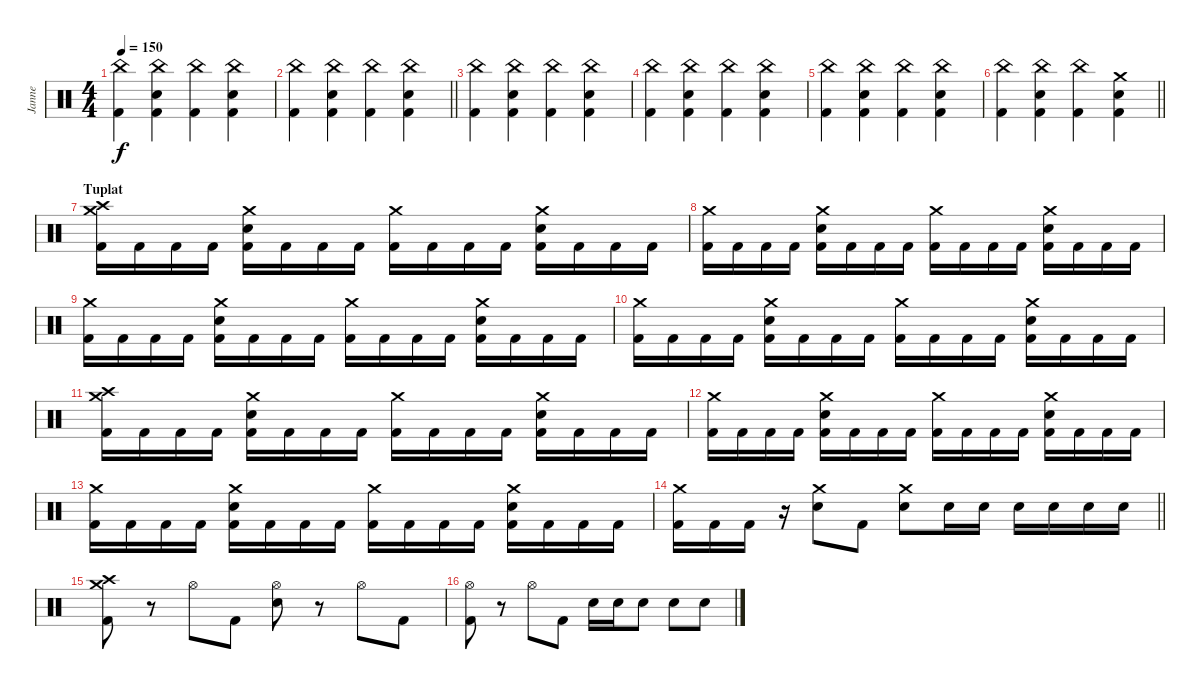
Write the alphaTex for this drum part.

\track ("Janne" "Janne") {instrument percussion}
\staff {score}
\articulation defaults
\ts (4 4)
\tempo 150
\clef neutral
\ks c
("China (hit)" "Kick (hit) 2").4{dy f} ("China (hit)" "Electric Snare (hit)" "Kick (hit) 2").4 ("China (hit)" "Kick (hit) 2").4 ("China (hit)" "Electric Snare (hit)" "Kick (hit) 2").4 |
\barLineRight lightlight
("China (hit)" "Kick (hit) 2").4 ("China (hit)" "Electric Snare (hit)" "Kick (hit) 2").4 ("China (hit)" "Kick (hit) 2").4 ("China (hit)" "Electric Snare (hit)" "Kick (hit) 2").4 |
("China (hit)" "Kick (hit) 2").4 ("China (hit)" "Electric Snare (hit)" "Kick (hit) 2").4 ("China (hit)" "Kick (hit) 2").4 ("China (hit)" "Electric Snare (hit)" "Kick (hit) 2").4 |
("China (hit)" "Kick (hit) 2").4 ("China (hit)" "Electric Snare (hit)" "Kick (hit) 2").4 ("China (hit)" "Kick (hit) 2").4 ("China (hit)" "Electric Snare (hit)" "Kick (hit) 2").4 |
("China (hit)" "Kick (hit) 2").4 ("China (hit)" "Electric Snare (hit)" "Kick (hit) 2").4 ("China (hit)" "Kick (hit) 2").4 ("China (hit)" "Electric Snare (hit)" "Kick (hit) 2").4 |
\barLineRight lightlight
("China (hit)" "Kick (hit) 2").4 ("China (hit)" "Electric Snare (hit)" "Kick (hit) 2").4 ("China (hit)" "Kick (hit) 2").4 ("Crash medium (hit)" "Electric Snare (hit)" "Kick (hit) 2").4 |
\section ("" "Tuplat")
("Crash high (hit)" "Crash medium (hit)" "Kick (hit) 2").16 "Kick (hit) 2".16 "Kick (hit) 2".16 "Kick (hit) 2".16 ("Crash medium (hit)" "Electric Snare (hit)" "Kick (hit) 2").16 "Kick (hit) 2".16 "Kick (hit) 2".16 "Kick (hit) 2".16 ("Crash medium (hit)" "Kick (hit) 2").16 "Kick (hit) 2".16 "Kick (hit) 2".16 "Kick (hit) 2".16 ("Crash medium (hit)" "Electric Snare (hit)" "Kick (hit) 2").16 "Kick (hit) 2".16 "Kick (hit) 2".16 "Kick (hit) 2".16 |
("Crash medium (hit)" "Kick (hit) 2").16 "Kick (hit) 2".16 "Kick (hit) 2".16 "Kick (hit) 2".16 ("Crash medium (hit)" "Electric Snare (hit)" "Kick (hit) 2").16 "Kick (hit) 2".16 "Kick (hit) 2".16 "Kick (hit) 2".16 ("Crash medium (hit)" "Kick (hit) 2").16 "Kick (hit) 2".16 "Kick (hit) 2".16 "Kick (hit) 2".16 ("Crash medium (hit)" "Electric Snare (hit)" "Kick (hit) 2").16 "Kick (hit) 2".16 "Kick (hit) 2".16 "Kick (hit) 2".16 |
("Crash medium (hit)" "Kick (hit) 2").16 "Kick (hit) 2".16 "Kick (hit) 2".16 "Kick (hit) 2".16 ("Crash medium (hit)" "Electric Snare (hit)" "Kick (hit) 2").16 "Kick (hit) 2".16 "Kick (hit) 2".16 "Kick (hit) 2".16 ("Crash medium (hit)" "Kick (hit) 2").16 "Kick (hit) 2".16 "Kick (hit) 2".16 "Kick (hit) 2".16 ("Crash medium (hit)" "Electric Snare (hit)" "Kick (hit) 2").16 "Kick (hit) 2".16 "Kick (hit) 2".16 "Kick (hit) 2".16 |
("Crash medium (hit)" "Kick (hit) 2").16 "Kick (hit) 2".16 "Kick (hit) 2".16 "Kick (hit) 2".16 ("Crash medium (hit)" "Electric Snare (hit)" "Kick (hit) 2").16 "Kick (hit) 2".16 "Kick (hit) 2".16 "Kick (hit) 2".16 ("Crash medium (hit)" "Kick (hit) 2").16 "Kick (hit) 2".16 "Kick (hit) 2".16 "Kick (hit) 2".16 ("Crash medium (hit)" "Electric Snare (hit)" "Kick (hit) 2").16 "Kick (hit) 2".16 "Kick (hit) 2".16 "Kick (hit) 2".16 |
("Crash high (hit)" "Crash medium (hit)" "Kick (hit) 2").16 "Kick (hit) 2".16 "Kick (hit) 2".16 "Kick (hit) 2".16 ("Crash medium (hit)" "Electric Snare (hit)" "Kick (hit) 2").16 "Kick (hit) 2".16 "Kick (hit) 2".16 "Kick (hit) 2".16 ("Crash medium (hit)" "Kick (hit) 2").16 "Kick (hit) 2".16 "Kick (hit) 2".16 "Kick (hit) 2".16 ("Crash medium (hit)" "Electric Snare (hit)" "Kick (hit) 2").16 "Kick (hit) 2".16 "Kick (hit) 2".16 "Kick (hit) 2".16 |
("Crash medium (hit)" "Kick (hit) 2").16 "Kick (hit) 2".16 "Kick (hit) 2".16 "Kick (hit) 2".16 ("Crash medium (hit)" "Electric Snare (hit)" "Kick (hit) 2").16 "Kick (hit) 2".16 "Kick (hit) 2".16 "Kick (hit) 2".16 ("Crash medium (hit)" "Kick (hit) 2").16 "Kick (hit) 2".16 "Kick (hit) 2".16 "Kick (hit) 2".16 ("Crash medium (hit)" "Electric Snare (hit)" "Kick (hit) 2").16 "Kick (hit) 2".16 "Kick (hit) 2".16 "Kick (hit) 2".16 |
("Crash medium (hit)" "Kick (hit) 2").16 "Kick (hit) 2".16 "Kick (hit) 2".16 "Kick (hit) 2".16 ("Crash medium (hit)" "Electric Snare (hit)" "Kick (hit) 2").16 "Kick (hit) 2".16 "Kick (hit) 2".16 "Kick (hit) 2".16 ("Crash medium (hit)" "Kick (hit) 2").16 "Kick (hit) 2".16 "Kick (hit) 2".16 "Kick (hit) 2".16 ("Crash medium (hit)" "Electric Snare (hit)" "Kick (hit) 2").16 "Kick (hit) 2".16 "Kick (hit) 2".16 "Kick (hit) 2".16 |
\barLineRight lightlight
("Crash medium (hit)" "Kick (hit) 2").16 "Kick (hit) 2".16 "Kick (hit) 2".16 r.16 ("Crash medium (hit)" "Electric Snare (hit)").8 "Kick (hit) 2".8 ("Crash medium (hit)" "Electric Snare (hit)").8 "Electric Snare (hit)".16 "Electric Snare (hit)".16 "Electric Snare (hit)".16 "Electric Snare (hit)".16 "Electric Snare (hit)".16 "Electric Snare (hit)".16 |
\section ("" "")
("Crash high (hit)" "Crash medium (hit)" "Kick (hit) 2").8 r.8 "Hi-Hat (open)".8 "Kick (hit) 2".8 ("Hi-Hat (open)" "Electric Snare (hit)").8 r.8 "Hi-Hat (open)".8 "Kick (hit) 2".8 |
("Hi-Hat (open)" "Kick (hit) 2").8 r.8 "Hi-Hat (open)".8 "Kick (hit) 2".8 "Electric Snare (hit)".16 "Electric Snare (hit)".16 "Electric Snare (hit)".8 "Electric Snare (hit)".8 "Electric Snare (hit)".8
